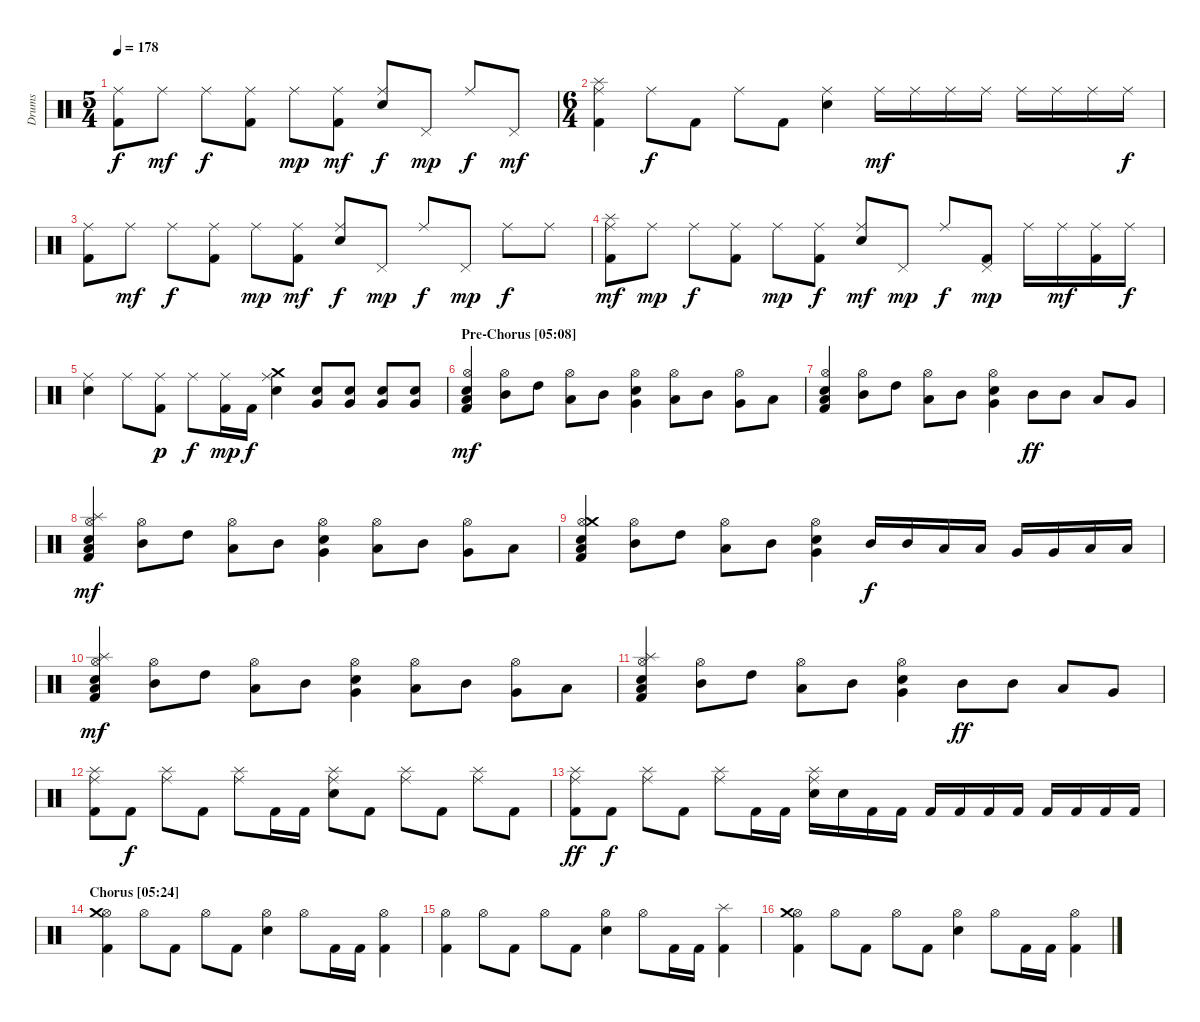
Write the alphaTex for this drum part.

\track ("Drums" "Drums") {instrument percussion}
\staff {score}
\articulation defaults
\ts (5 4)
\tempo 178
\clef neutral
\ks c
("Ride (middle)" "Kick (hit) 2").8{dy f} "Ride (middle)".8{dy mf} "Ride (middle)".8{dy f} ("Ride (middle)" "Kick (hit) 2").8 "Ride (middle)".8{dy mp} ("Ride (middle)" "Kick (hit) 2").8{dy mf} ("Ride (middle)" "Electric Snare (hit)").8{dy f} "Pedal Hi-Hat (hit)".8{dy mp} "Ride (middle)".8{dy f} "Pedal Hi-Hat (hit)".8{dy mf} |
\ts (6 4)
\section ("" "")
("Ride (middle)" "Splash (hit)" "Kick (hit) 2").4 "Ride (middle)".8{dy f} "Kick (hit) 2".8 "Ride (middle)".8 "Kick (hit) 2".8 ("Ride (middle)" "Electric Snare (hit)").4 "Ride (middle)".16{dy mf} "Ride (middle)".16 "Ride (middle)".16 "Ride (middle)".16 "Ride (middle)".16 "Ride (middle)".16 "Ride (middle)".16 "Ride (middle)".16{dy f} |
("Ride (middle)" "Kick (hit) 2").8 "Ride (middle)".8{dy mf} "Ride (middle)".8{dy f} ("Ride (middle)" "Kick (hit) 2").8 "Ride (middle)".8{dy mp} ("Ride (middle)" "Kick (hit) 2").8{dy mf} ("Ride (middle)" "Electric Snare (hit)").8{dy f} "Pedal Hi-Hat (hit)".8{dy mp} "Ride (middle)".8{dy f} "Pedal Hi-Hat (hit)".8{dy mp} "Ride (middle)".8{dy f} "Ride (middle)".8 |
("Ride (middle)" "Splash (hit)" "Kick (hit) 2").8{dy mf} "Ride (middle)".8{dy mp} "Ride (middle)".8{dy f} ("Ride (middle)" "Kick (hit) 2").8 "Ride (middle)".8{dy mp} ("Ride (middle)" "Kick (hit) 2").8{dy f} ("Ride (middle)" "Electric Snare (hit)").8{dy mf} "Pedal Hi-Hat (hit)".8{dy mp} "Ride (middle)".8{dy f} ("Pedal Hi-Hat (hit)" "Kick (hit) 2").8{dy mp} "Ride (middle)".16 "Ride (middle)".16{dy mf} ("Ride (middle)" "Kick (hit) 2").16 "Ride (middle)".16{dy f} |
("Ride (middle)" "Electric Snare (hit)").4 "Ride (middle)".8 ("Ride (middle)" "Kick (hit) 2").8{dy p} "Ride (middle)".8{dy f} ("Ride (middle)" "Kick (hit) 2").16{dy mp} "Kick (hit) 2".16{dy f} ("Ride (middle)" "Crash medium (hit)" "Electric Snare (hit)").4 ("Very Low Tom (hit)" "Electric Snare (hit)").8 ("Very Low Tom (hit)" "Electric Snare (hit)").8 ("Very Low Tom (hit)" "Electric Snare (hit)").8 ("Very Low Tom (hit)" "Electric Snare (hit)").8 |
\section ("" "Pre-Chorus [05:08]")
("Hi-Hat (open)" "Low Tom (hit)" "Electric Snare (hit)" "Kick (hit) 2").4{dy mf} ("Hi-Hat (open)" "Mid Tom (hit)").8 "High Tom (hit)".8 ("Hi-Hat (open)" "Low Tom (hit)").8 "Mid Tom (hit)".8 ("Hi-Hat (open)" "Very Low Tom (hit)" "Electric Snare (hit)").4 ("Hi-Hat (open)" "Low Tom (hit)").8 "Mid Tom (hit)".8 ("Hi-Hat (open)" "Very Low Tom (hit)").8 "Low Tom (hit)".8 |
("Hi-Hat (open)" "Low Floor Tom (hit)" "Electric Snare (hit)" "Kick (hit) 2").4 ("Hi-Hat (open)" "Mid Tom (hit)").8 "High Tom (hit)".8 ("Hi-Hat (open)" "Low Tom (hit)").8 "Mid Tom (hit)".8 ("Hi-Hat (open)" "Very Low Tom (hit)" "Electric Snare (hit)").4 "Mid Tom (hit)".8{dy ff} "Mid Tom (hit)".8 "Low Tom (hit)".8 "Very Low Tom (hit)".8 |
("Hi-Hat (open)" "Splash (hit)" "Low Tom (hit)" "Electric Snare (hit)" "Kick (hit) 2").4{dy mf} ("Hi-Hat (open)" "Mid Tom (hit)").8 "High Tom (hit)".8 ("Hi-Hat (open)" "Low Tom (hit)").8 "Mid Tom (hit)".8 ("Hi-Hat (open)" "Very Low Tom (hit)" "Electric Snare (hit)").4 ("Hi-Hat (open)" "Low Tom (hit)").8 "Mid Tom (hit)".8 ("Hi-Hat (open)" "Very Low Tom (hit)").8 "Low Tom (hit)".8 |
("Hi-Hat (open)" "Crash medium (hit)" "Low Floor Tom (hit)" "Electric Snare (hit)" "Kick (hit) 2").4 ("Hi-Hat (open)" "Mid Tom (hit)").8 "High Tom (hit)".8 ("Hi-Hat (open)" "Low Tom (hit)").8 "Mid Tom (hit)".8 ("Hi-Hat (open)" "Very Low Tom (hit)" "Electric Snare (hit)").4 "Mid Tom (hit)".16{dy f} "Mid Tom (hit)".16 "Low Tom (hit)".16 "Low Tom (hit)".16 "Very Low Tom (hit)".16 "Very Low Tom (hit)".16 "Low Floor Tom (hit)".16 "Low Floor Tom (hit)".16 |
("Hi-Hat (open)" "Splash (hit)" "Low Tom (hit)" "Electric Snare (hit)" "Kick (hit) 2").4{dy mf} ("Hi-Hat (open)" "Mid Tom (hit)").8 "High Tom (hit)".8 ("Hi-Hat (open)" "Low Tom (hit)").8 "Mid Tom (hit)".8 ("Hi-Hat (open)" "Very Low Tom (hit)" "Electric Snare (hit)").4 ("Hi-Hat (open)" "Low Tom (hit)").8 "Mid Tom (hit)".8 ("Hi-Hat (open)" "Very Low Tom (hit)").8 "Low Tom (hit)".8 |
("Hi-Hat (open)" "Splash (hit)" "Low Tom (hit)" "Electric Snare (hit)" "Kick (hit) 2").4 ("Hi-Hat (open)" "Mid Tom (hit)").8 "High Tom (hit)".8 ("Hi-Hat (open)" "Low Tom (hit)").8 "Mid Tom (hit)".8 ("Hi-Hat (open)" "Very Low Tom (hit)" "Electric Snare (hit)").4 "Mid Tom (hit)".8{dy ff} "Mid Tom (hit)".8 "Low Tom (hit)".8 "Very Low Tom (hit)".8 |
("Ride (middle)" "Splash (hit)" "Kick (hit) 2").8 "Kick (hit) 2".8{dy f} ("Ride (middle)" "Splash (hit)").8 "Kick (hit) 2".8 ("Ride (middle)" "Splash (hit)").8 "Kick (hit) 2".16 "Kick (hit) 2".16 ("Ride (middle)" "Splash (hit)" "Electric Snare (hit)").8 "Kick (hit) 2".8 ("Ride (middle)" "Splash (hit)").8 "Kick (hit) 2".8 ("Ride (middle)" "Splash (hit)").8 "Kick (hit) 2".8 |
("Ride (middle)" "Splash (hit)" "Kick (hit) 2").8{dy ff} "Kick (hit) 2".8{dy f} ("Ride (middle)" "Splash (hit)").8 "Kick (hit) 2".8 ("Ride (middle)" "Splash (hit)").8 "Kick (hit) 2".16 "Kick (hit) 2".16 ("Ride (middle)" "Splash (hit)" "Electric Snare (hit)").16 "Electric Snare (hit)".16 "Kick (hit) 2".16 "Kick (hit) 2".16 "Kick (hit) 2".16 "Kick (hit) 2".16 "Kick (hit) 2".16 "Kick (hit) 2".16 "Kick (hit) 2".16 "Kick (hit) 2".16 "Kick (hit) 2".16 "Kick (hit) 2".16 |
\section ("" "Chorus [05:24]")
("Hi-Hat (open)" "Crash medium (hit)" "Kick (hit) 2").4 "Hi-Hat (open)".8 "Kick (hit) 2".8 "Hi-Hat (open)".8 "Kick (hit) 2".8 ("Hi-Hat (open)" "Electric Snare (hit)").4 "Hi-Hat (open)".8 "Kick (hit) 2".16 "Kick (hit) 2".16 ("Hi-Hat (open)" "Kick (hit) 2").4 |
("Hi-Hat (open)" "Kick (hit) 2").4 "Hi-Hat (open)".8 "Kick (hit) 2".8 "Hi-Hat (open)".8 "Kick (hit) 2".8 ("Hi-Hat (open)" "Electric Snare (hit)").4 "Hi-Hat (open)".8 "Kick (hit) 2".16 "Kick (hit) 2".16 ("Splash (hit)" "Kick (hit) 2").4 |
("Hi-Hat (open)" "Crash medium (hit)" "Kick (hit) 2").4 "Hi-Hat (open)".8 "Kick (hit) 2".8 "Hi-Hat (open)".8 "Kick (hit) 2".8 ("Hi-Hat (open)" "Electric Snare (hit)").4 "Hi-Hat (open)".8 "Kick (hit) 2".16 "Kick (hit) 2".16 ("Hi-Hat (open)" "Kick (hit) 2").4
